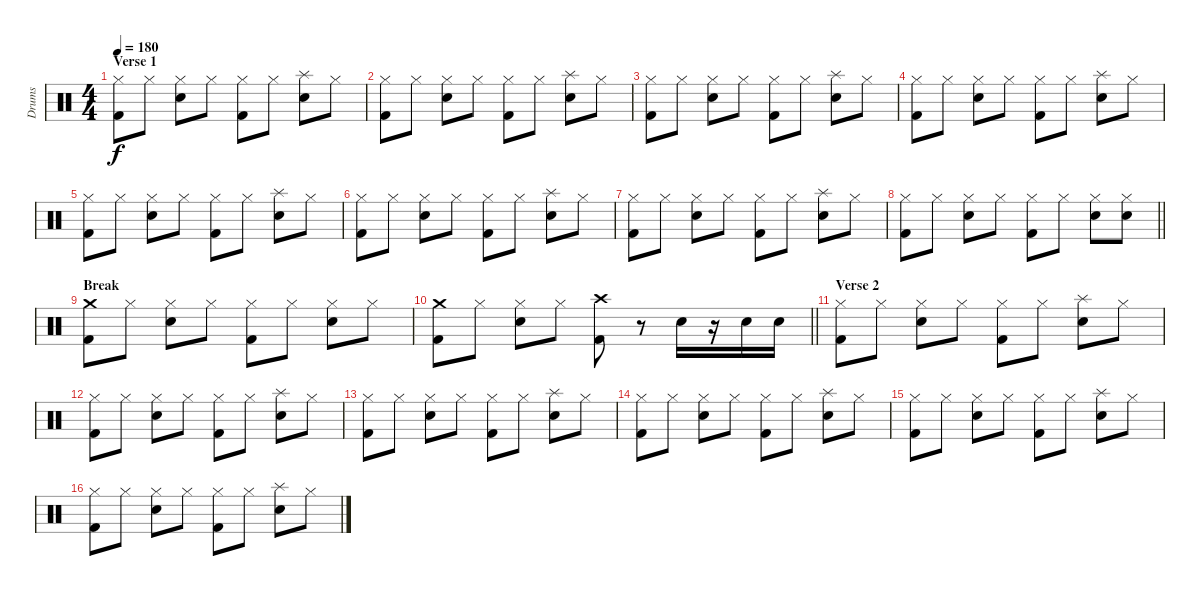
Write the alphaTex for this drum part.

\track ("Drums" "Drums") {instrument percussion}
\staff {score}
\articulation defaults
\ts (4 4)
\section ("" "Verse 1")
\tempo 180
\clef neutral
\ks c
("Hi-Hat (closed)" "Kick (hit) 2").8{dy f} "Hi-Hat (closed)".8 ("Hi-Hat (closed)" "Snare (hit) 2").8 "Hi-Hat (closed)".8 ("Hi-Hat (closed)" "Kick (hit) 2").8 "Hi-Hat (closed)".8 ("Splash (hit)" "Snare (hit) 2").8 "Hi-Hat (closed)".8 |
("Hi-Hat (closed)" "Kick (hit) 2").8 "Hi-Hat (closed)".8 ("Hi-Hat (closed)" "Snare (hit) 2").8 "Hi-Hat (closed)".8 ("Hi-Hat (closed)" "Kick (hit) 2").8 "Hi-Hat (closed)".8 ("Splash (hit)" "Snare (hit) 2").8 "Hi-Hat (closed)".8 |
("Hi-Hat (closed)" "Kick (hit) 2").8 "Hi-Hat (closed)".8 ("Hi-Hat (closed)" "Snare (hit) 2").8 "Hi-Hat (closed)".8 ("Hi-Hat (closed)" "Kick (hit) 2").8 "Hi-Hat (closed)".8 ("Splash (hit)" "Snare (hit) 2").8 "Hi-Hat (closed)".8 |
("Hi-Hat (closed)" "Kick (hit) 2").8 "Hi-Hat (closed)".8 ("Hi-Hat (closed)" "Snare (hit) 2").8 "Hi-Hat (closed)".8 ("Hi-Hat (closed)" "Kick (hit) 2").8 "Hi-Hat (closed)".8 ("Splash (hit)" "Snare (hit) 2").8 "Hi-Hat (closed)".8 |
("Hi-Hat (closed)" "Kick (hit) 2").8 "Hi-Hat (closed)".8 ("Hi-Hat (closed)" "Snare (hit) 2").8 "Hi-Hat (closed)".8 ("Hi-Hat (closed)" "Kick (hit) 2").8 "Hi-Hat (closed)".8 ("Splash (hit)" "Snare (hit) 2").8 "Hi-Hat (closed)".8 |
("Hi-Hat (closed)" "Kick (hit) 2").8 "Hi-Hat (closed)".8 ("Hi-Hat (closed)" "Snare (hit) 2").8 "Hi-Hat (closed)".8 ("Hi-Hat (closed)" "Kick (hit) 2").8 "Hi-Hat (closed)".8 ("Splash (hit)" "Snare (hit) 2").8 "Hi-Hat (closed)".8 |
("Hi-Hat (closed)" "Kick (hit) 2").8 "Hi-Hat (closed)".8 ("Hi-Hat (closed)" "Snare (hit) 2").8 "Hi-Hat (closed)".8 ("Hi-Hat (closed)" "Kick (hit) 2").8 "Hi-Hat (closed)".8 ("Splash (hit)" "Snare (hit) 2").8 "Hi-Hat (closed)".8 |
\barLineRight lightlight
("Hi-Hat (closed)" "Kick (hit) 2").8 "Hi-Hat (closed)".8 ("Hi-Hat (closed)" "Snare (hit) 2").8 "Hi-Hat (closed)".8 ("Hi-Hat (closed)" "Kick (hit) 2").8 "Hi-Hat (closed)".8 ("Hi-Hat (closed)" "Snare (hit) 2").8 ("Hi-Hat (closed)" "Snare (hit) 2").8 |
\section ("" "Break")
("Crash medium (hit)" "Kick (hit) 2").8 "Hi-Hat (closed)".8 ("Hi-Hat (closed)" "Snare (hit) 2").8 "Hi-Hat (closed)".8 ("Hi-Hat (closed)" "Kick (hit) 2").8 "Hi-Hat (closed)".8 ("Hi-Hat (closed)" "Snare (hit) 2").8 "Hi-Hat (closed)".8 |
\barLineRight lightlight
("Crash medium (hit)" "Kick (hit) 2").8 "Hi-Hat (closed)".8 ("Hi-Hat (closed)" "Snare (hit) 2").8 "Hi-Hat (closed)".8 ("Crash high (hit)" "Kick (hit) 2").8 r.8 "Snare (hit) 2".16 r.16 "Snare (hit) 2".16 "Snare (hit) 2".16 |
\section ("" "Verse 2")
("Hi-Hat (closed)" "Kick (hit) 2").8 "Hi-Hat (closed)".8 ("Hi-Hat (closed)" "Snare (hit) 2").8 "Hi-Hat (closed)".8 ("Hi-Hat (closed)" "Kick (hit) 2").8 "Hi-Hat (closed)".8 ("Splash (hit)" "Snare (hit) 2").8 "Hi-Hat (closed)".8 |
("Hi-Hat (closed)" "Kick (hit) 2").8 "Hi-Hat (closed)".8 ("Hi-Hat (closed)" "Snare (hit) 2").8 "Hi-Hat (closed)".8 ("Hi-Hat (closed)" "Kick (hit) 2").8 "Hi-Hat (closed)".8 ("Splash (hit)" "Snare (hit) 2").8 "Hi-Hat (closed)".8 |
("Hi-Hat (closed)" "Kick (hit) 2").8 "Hi-Hat (closed)".8 ("Hi-Hat (closed)" "Snare (hit) 2").8 "Hi-Hat (closed)".8 ("Hi-Hat (closed)" "Kick (hit) 2").8 "Hi-Hat (closed)".8 ("Splash (hit)" "Snare (hit) 2").8 "Hi-Hat (closed)".8 |
("Hi-Hat (closed)" "Kick (hit) 2").8 "Hi-Hat (closed)".8 ("Hi-Hat (closed)" "Snare (hit) 2").8 "Hi-Hat (closed)".8 ("Hi-Hat (closed)" "Kick (hit) 2").8 "Hi-Hat (closed)".8 ("Splash (hit)" "Snare (hit) 2").8 "Hi-Hat (closed)".8 |
("Hi-Hat (closed)" "Kick (hit) 2").8 "Hi-Hat (closed)".8 ("Hi-Hat (closed)" "Snare (hit) 2").8 "Hi-Hat (closed)".8 ("Hi-Hat (closed)" "Kick (hit) 2").8 "Hi-Hat (closed)".8 ("Splash (hit)" "Snare (hit) 2").8 "Hi-Hat (closed)".8 |
("Hi-Hat (closed)" "Kick (hit) 2").8 "Hi-Hat (closed)".8 ("Hi-Hat (closed)" "Snare (hit) 2").8 "Hi-Hat (closed)".8 ("Hi-Hat (closed)" "Kick (hit) 2").8 "Hi-Hat (closed)".8 ("Splash (hit)" "Snare (hit) 2").8 "Hi-Hat (closed)".8
